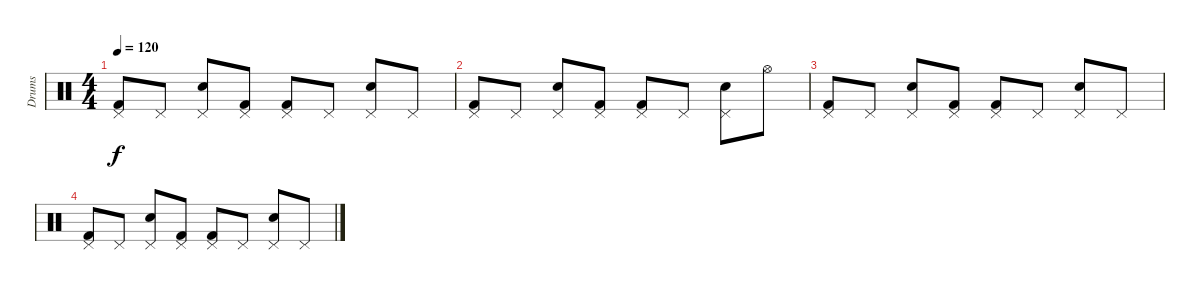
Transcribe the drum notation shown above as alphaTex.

\track ("Drums" "Drums") {instrument percussion}
\staff {score}
\articulation defaults
\ts (4 4)
\tempo 120
\clef neutral
\ks c
("Pedal Hi-Hat (hit)" "Kick (hit) 2").8{dy f} "Pedal Hi-Hat (hit)".8 ("Pedal Hi-Hat (hit)" "Snare (hit) 2").8 ("Pedal Hi-Hat (hit)" "Kick (hit) 2").8 ("Pedal Hi-Hat (hit)" "Kick (hit) 2").8 "Pedal Hi-Hat (hit)".8 ("Pedal Hi-Hat (hit)" "Snare (hit) 2").8 "Pedal Hi-Hat (hit)".8 |
("Pedal Hi-Hat (hit)" "Kick (hit) 2").8 "Pedal Hi-Hat (hit)".8 ("Pedal Hi-Hat (hit)" "Snare (hit) 2").8 ("Pedal Hi-Hat (hit)" "Kick (hit) 2").8 ("Pedal Hi-Hat (hit)" "Kick (hit) 2").8 "Pedal Hi-Hat (hit)".8 ("Pedal Hi-Hat (hit)" "Snare (hit) 2").8 "Hi-Hat (open)".8 |
("Pedal Hi-Hat (hit)" "Kick (hit) 2").8{volume 8} "Pedal Hi-Hat (hit)".8 ("Pedal Hi-Hat (hit)" "Snare (hit) 2").8 ("Pedal Hi-Hat (hit)" "Kick (hit) 2").8 ("Pedal Hi-Hat (hit)" "Kick (hit) 2").8 "Pedal Hi-Hat (hit)".8 ("Pedal Hi-Hat (hit)" "Snare (hit) 2").8 "Pedal Hi-Hat (hit)".8 |
("Pedal Hi-Hat (hit)" "Kick (hit) 2").8{volume 0} "Pedal Hi-Hat (hit)".8 ("Pedal Hi-Hat (hit)" "Snare (hit) 2").8 ("Pedal Hi-Hat (hit)" "Kick (hit) 2").8 ("Pedal Hi-Hat (hit)" "Kick (hit) 2").8 "Pedal Hi-Hat (hit)".8 ("Pedal Hi-Hat (hit)" "Snare (hit) 2").8 "Pedal Hi-Hat (hit)".8
